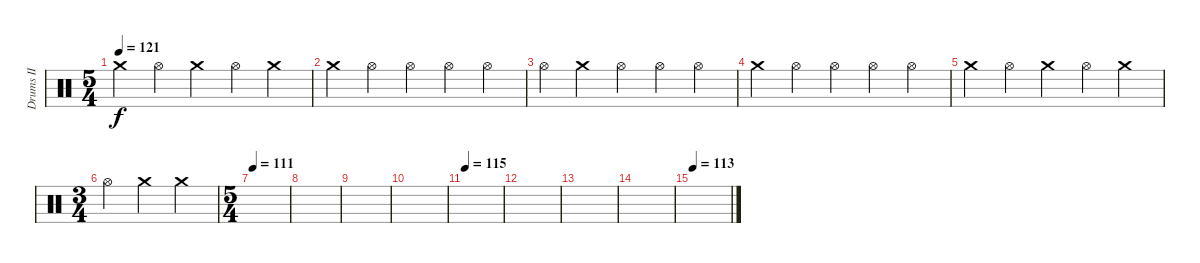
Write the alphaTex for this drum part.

\track ("Drums II" "Drums II") {instrument percussion}
\staff {score}
\articulation defaults
\ts (5 4)
\tempo 121
\clef neutral
\ks c "Crash medium (hit)".4{dy f} "Hi-Hat (open)".4 "Crash medium (hit)".4 "Hi-Hat (open)".4 "Crash medium (hit)".4
|
"Crash medium (hit)".4 "Hi-Hat (open)".4 "Hi-Hat (open)".4 "Hi-Hat (open)".4 "Hi-Hat (open)".4 |
"Hi-Hat (open)".4 "Crash medium (hit)".4 "Hi-Hat (open)".4 "Hi-Hat (open)".4 "Hi-Hat (open)".4 |
"Crash medium (hit)".4 "Hi-Hat (open)".4 "Hi-Hat (open)".4 "Hi-Hat (open)".4 "Hi-Hat (open)".4 |
"Crash medium (hit)".4 "Hi-Hat (open)".4 "Crash medium (hit)".4 "Hi-Hat (open)".4 "Crash medium (hit)".4 |
\ts (3 4)
"Hi-Hat (open)".4 "Crash medium (hit)".4 "Crash medium (hit)".4 |
\ts (5 4)
\tempo 111
|
|
|
|
\tempo 115
|
|
|
|
\tempo 113
